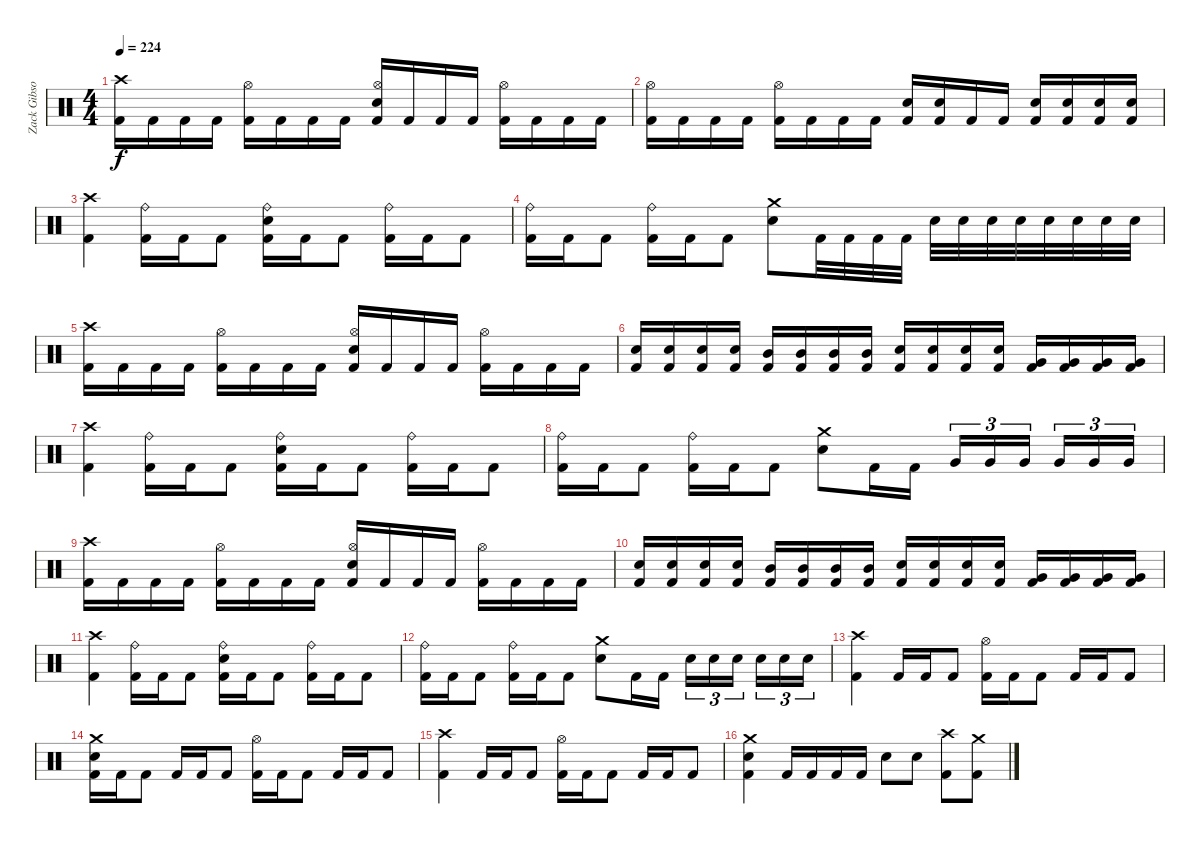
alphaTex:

\track ("Zack Gibson" "Zack Gibso") {instrument percussion}
\staff {score}
\articulation defaults
\ts (4 4)
\tempo 224
\clef neutral
\ks c
("Crash high (hit)" "Kick (hit) 2").16{dy f} "Kick (hit) 2".16 "Kick (hit) 2".16 "Kick (hit) 2".16 ("Hi-Hat (open)" "Kick (hit) 2").16 "Kick (hit) 2".16 "Kick (hit) 2".16 "Kick (hit) 2".16 ("Hi-Hat (open)" "Snare (hit) 2" "Kick (hit) 2").16 "Kick (hit) 2".16 "Kick (hit) 2".16 "Kick (hit) 2".16 ("Hi-Hat (open)" "Kick (hit) 2").16 "Kick (hit) 2".16 "Kick (hit) 2".16 "Kick (hit) 2".16 |
("Hi-Hat (open)" "Kick (hit) 2").16 "Kick (hit) 2".16 "Kick (hit) 2".16 "Kick (hit) 2".16 ("Hi-Hat (open)" "Kick (hit) 2").16 "Kick (hit) 2".16 "Kick (hit) 2".16 "Kick (hit) 2".16 ("Snare (hit) 2" "Kick (hit) 2").16 ("Snare (hit) 2" "Kick (hit) 2").16 "Kick (hit) 2".16 "Kick (hit) 2".16 ("Snare (hit) 2" "Kick (hit) 2").16 ("Snare (hit) 2" "Kick (hit) 2").16 ("Snare (hit) 2" "Kick (hit) 2").16 ("Snare (hit) 2" "Kick (hit) 2").16 |
("Crash high (hit)" "Kick (hit) 2").4 ("Ride (bell)" "Kick (hit) 2").16 "Kick (hit) 2".16 "Kick (hit) 2".8 ("Snare (hit) 2" "Ride (bell)" "Kick (hit) 2").16 "Kick (hit) 2".16 "Kick (hit) 2".8 ("Ride (bell)" "Kick (hit) 2").16 "Kick (hit) 2".16 "Kick (hit) 2".8 |
("Ride (bell)" "Kick (hit) 2").16 "Kick (hit) 2".16 "Kick (hit) 2".8 ("Ride (bell)" "Kick (hit) 2").16 "Kick (hit) 2".16 "Kick (hit) 2".8 ("Crash medium (hit)" "Snare (hit) 2").8 "Kick (hit) 2".32 "Kick (hit) 2".32 "Kick (hit) 2".32 "Kick (hit) 2".32 "Snare (hit) 2".32 "Snare (hit) 2".32 "Snare (hit) 2".32 "Snare (hit) 2".32 "Snare (hit) 2".32 "Snare (hit) 2".32 "Snare (hit) 2".32 "Snare (hit) 2".32 |
("Crash high (hit)" "Kick (hit) 2").16 "Kick (hit) 2".16 "Kick (hit) 2".16 "Kick (hit) 2".16 ("Hi-Hat (open)" "Kick (hit) 2").16 "Kick (hit) 2".16 "Kick (hit) 2".16 "Kick (hit) 2".16 ("Hi-Hat (open)" "Snare (hit) 2" "Kick (hit) 2").16 "Kick (hit) 2".16 "Kick (hit) 2".16 "Kick (hit) 2".16 ("Hi-Hat (open)" "Kick (hit) 2").16 "Kick (hit) 2".16 "Kick (hit) 2".16 "Kick (hit) 2".16 |
("Snare (hit) 2" "Kick (hit) 2").16 ("Snare (hit) 2" "Kick (hit) 2").16 ("Snare (hit) 2" "Kick (hit) 2").16 ("Snare (hit) 2" "Kick (hit) 2").16 ("Mid Tom (hit)" "Kick (hit) 2").16 ("Mid Tom (hit)" "Kick (hit) 2").16 ("Mid Tom (hit)" "Kick (hit) 2").16 ("Mid Tom (hit)" "Kick (hit) 2").16 ("Snare (hit) 2" "Kick (hit) 2").16 ("Snare (hit) 2" "Kick (hit) 2").16 ("Snare (hit) 2" "Kick (hit) 2").16 ("Snare (hit) 2" "Kick (hit) 2").16 ("Very Low Tom (hit)" "Kick (hit) 2").16 ("Very Low Tom (hit)" "Kick (hit) 2").16 ("Very Low Tom (hit)" "Kick (hit) 2").16 ("Very Low Tom (hit)" "Kick (hit) 2").16 |
("Crash high (hit)" "Kick (hit) 2").4 ("Ride (bell)" "Kick (hit) 2").16 "Kick (hit) 2".16 "Kick (hit) 2".8 ("Snare (hit) 2" "Ride (bell)" "Kick (hit) 2").16 "Kick (hit) 2".16 "Kick (hit) 2".8 ("Ride (bell)" "Kick (hit) 2").16 "Kick (hit) 2".16 "Kick (hit) 2".8 |
("Ride (bell)" "Kick (hit) 2").16 "Kick (hit) 2".16 "Kick (hit) 2".8 ("Ride (bell)" "Kick (hit) 2").16 "Kick (hit) 2".16 "Kick (hit) 2".8 ("Crash medium (hit)" "Snare (hit) 2").8 "Kick (hit) 2".16 "Kick (hit) 2".16 "Very Low Tom (hit)".16{tu (3 2)} "Very Low Tom (hit)".16{tu (3 2)} "Very Low Tom (hit)".16{tu (3 2)} "Very Low Tom (hit)".16{tu (3 2)} "Very Low Tom (hit)".16{tu (3 2)} "Very Low Tom (hit)".16{tu (3 2)} |
("Crash high (hit)" "Kick (hit) 2").16 "Kick (hit) 2".16 "Kick (hit) 2".16 "Kick (hit) 2".16 ("Hi-Hat (open)" "Kick (hit) 2").16 "Kick (hit) 2".16 "Kick (hit) 2".16 "Kick (hit) 2".16 ("Hi-Hat (open)" "Snare (hit) 2" "Kick (hit) 2").16 "Kick (hit) 2".16 "Kick (hit) 2".16 "Kick (hit) 2".16 ("Hi-Hat (open)" "Kick (hit) 2").16 "Kick (hit) 2".16 "Kick (hit) 2".16 "Kick (hit) 2".16 |
("Snare (hit) 2" "Kick (hit) 2").16 ("Snare (hit) 2" "Kick (hit) 2").16 ("Snare (hit) 2" "Kick (hit) 2").16 ("Snare (hit) 2" "Kick (hit) 2").16 ("Mid Tom (hit)" "Kick (hit) 2").16 ("Mid Tom (hit)" "Kick (hit) 2").16 ("Mid Tom (hit)" "Kick (hit) 2").16 ("Mid Tom (hit)" "Kick (hit) 2").16 ("Snare (hit) 2" "Kick (hit) 2").16 ("Snare (hit) 2" "Kick (hit) 2").16 ("Snare (hit) 2" "Kick (hit) 2").16 ("Snare (hit) 2" "Kick (hit) 2").16 ("Very Low Tom (hit)" "Kick (hit) 2").16 ("Very Low Tom (hit)" "Kick (hit) 2").16 ("Very Low Tom (hit)" "Kick (hit) 2").16 ("Very Low Tom (hit)" "Kick (hit) 2").16 |
("Crash high (hit)" "Kick (hit) 2").4 ("Ride (bell)" "Kick (hit) 2").16 "Kick (hit) 2".16 "Kick (hit) 2".8 ("Snare (hit) 2" "Ride (bell)" "Kick (hit) 2").16 "Kick (hit) 2".16 "Kick (hit) 2".8 ("Ride (bell)" "Kick (hit) 2").16 "Kick (hit) 2".16 "Kick (hit) 2".8 |
("Ride (bell)" "Kick (hit) 2").16 "Kick (hit) 2".16 "Kick (hit) 2".8 ("Ride (bell)" "Kick (hit) 2").16 "Kick (hit) 2".16 "Kick (hit) 2".8 ("Crash medium (hit)" "Snare (hit) 2").8 "Kick (hit) 2".16 "Kick (hit) 2".16 "Snare (hit) 2".16{tu (3 2)} "Snare (hit) 2".16{tu (3 2)} "Snare (hit) 2".16{tu (3 2)} "Snare (hit) 2".16{tu (3 2)} "Snare (hit) 2".16{tu (3 2)} "Snare (hit) 2".16{tu (3 2)} |
("Crash high (hit)" "Kick (hit) 2").4 "Kick (hit) 2".16 "Kick (hit) 2".16 "Kick (hit) 2".8 ("Hi-Hat (open)" "Kick (hit) 2").16 "Kick (hit) 2".16 "Kick (hit) 2".8 "Kick (hit) 2".16 "Kick (hit) 2".16 "Kick (hit) 2".8 |
("Snare (hit) 2" "Crash medium (hit)" "Kick (hit) 2").16 "Kick (hit) 2".16 "Kick (hit) 2".8 "Kick (hit) 2".16 "Kick (hit) 2".16 "Kick (hit) 2".8 ("Hi-Hat (open)" "Kick (hit) 2").16 "Kick (hit) 2".16 "Kick (hit) 2".8 "Kick (hit) 2".16 "Kick (hit) 2".16 "Kick (hit) 2".8 |
("Crash high (hit)" "Kick (hit) 2").4 "Kick (hit) 2".16 "Kick (hit) 2".16 "Kick (hit) 2".8 ("Hi-Hat (open)" "Kick (hit) 2").16 "Kick (hit) 2".16 "Kick (hit) 2".8 "Kick (hit) 2".16 "Kick (hit) 2".16 "Kick (hit) 2".8 |
("Crash medium (hit)" "Snare (hit) 2" "Kick (hit) 2").4 "Kick (hit) 2".16 "Kick (hit) 2".16 "Kick (hit) 2".16 "Kick (hit) 2".16 "Snare (hit) 2".8 "Snare (hit) 2".8 ("Crash high (hit)" "Kick (hit) 2").8 ("Crash medium (hit)" "Kick (hit) 2").8
